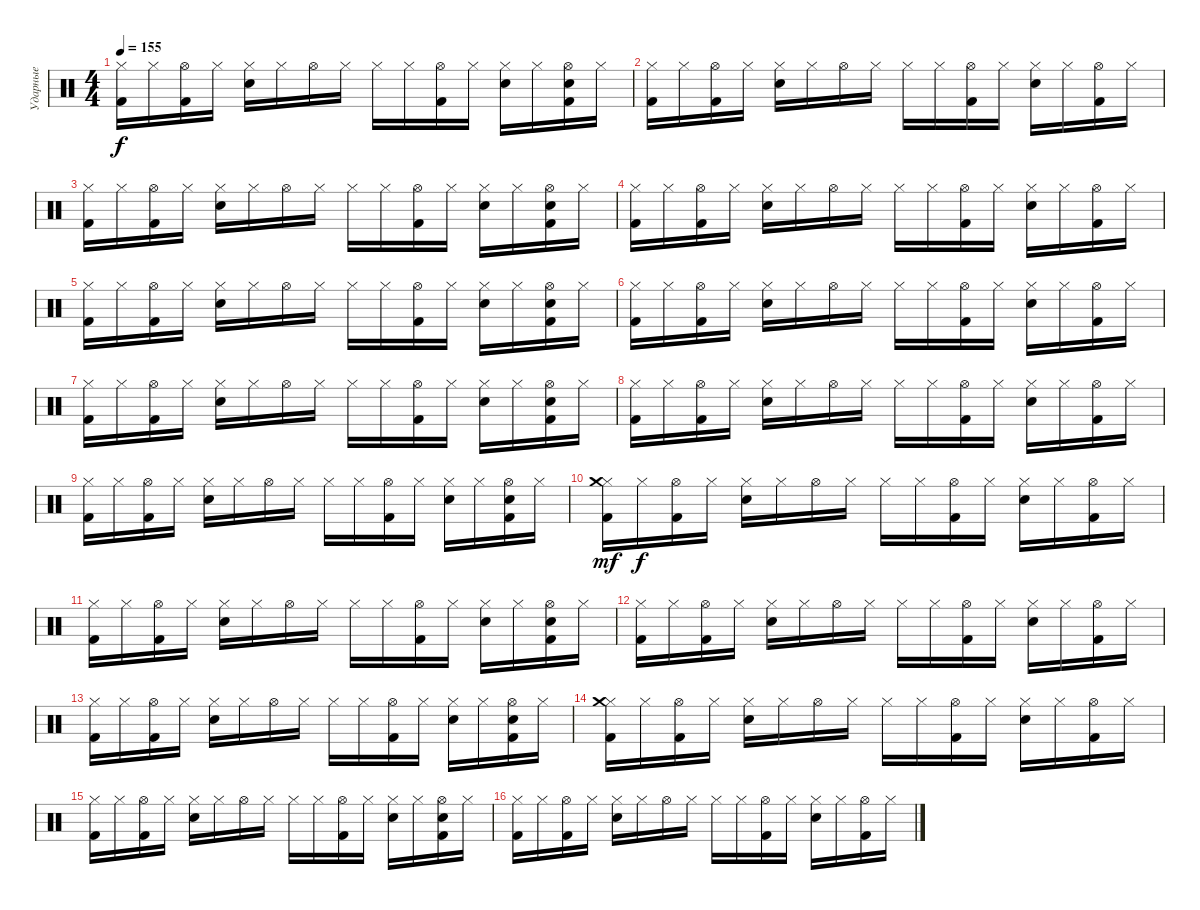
\track ("Ударные" "Ударные") {instrument percussion}
\staff {score}
\articulation defaults
\ts (4 4)
\tempo 155
\clef neutral
\ks c
("Hi-Hat (closed)" "Kick (hit) 2").16{dy f} "Hi-Hat (closed)".16 ("Hi-Hat (open)" "Kick (hit) 2").16 "Hi-Hat (closed)".16 ("Hi-Hat (closed)" "Electric Snare (hit)").16 "Hi-Hat (closed)".16 "Hi-Hat (open)".16 "Hi-Hat (closed)".16 "Hi-Hat (closed)".16 "Hi-Hat (closed)".16 ("Hi-Hat (open)" "Kick (hit) 2").16 "Hi-Hat (closed)".16 ("Hi-Hat (closed)" "Electric Snare (hit)").16 "Hi-Hat (closed)".16 ("Hi-Hat (open)" "Kick (hit) 2" "Electric Snare (hit)").16 "Hi-Hat (closed)".16 |
("Hi-Hat (closed)" "Kick (hit) 2").16 "Hi-Hat (closed)".16 ("Hi-Hat (open)" "Kick (hit) 2").16 "Hi-Hat (closed)".16 ("Hi-Hat (closed)" "Electric Snare (hit)").16 "Hi-Hat (closed)".16 "Hi-Hat (open)".16 "Hi-Hat (closed)".16 "Hi-Hat (closed)".16 "Hi-Hat (closed)".16 ("Hi-Hat (open)" "Kick (hit) 2").16 "Hi-Hat (closed)".16 ("Hi-Hat (closed)" "Electric Snare (hit)").16 "Hi-Hat (closed)".16 ("Hi-Hat (open)" "Kick (hit) 2").16 "Hi-Hat (closed)".16 |
("Hi-Hat (closed)" "Kick (hit) 2").16 "Hi-Hat (closed)".16 ("Hi-Hat (open)" "Kick (hit) 2").16 "Hi-Hat (closed)".16 ("Hi-Hat (closed)" "Electric Snare (hit)").16 "Hi-Hat (closed)".16 "Hi-Hat (open)".16 "Hi-Hat (closed)".16 "Hi-Hat (closed)".16 "Hi-Hat (closed)".16 ("Hi-Hat (open)" "Kick (hit) 2").16 "Hi-Hat (closed)".16 ("Hi-Hat (closed)" "Electric Snare (hit)").16 "Hi-Hat (closed)".16 ("Hi-Hat (open)" "Kick (hit) 2" "Electric Snare (hit)").16 "Hi-Hat (closed)".16 |
("Hi-Hat (closed)" "Kick (hit) 2").16 "Hi-Hat (closed)".16 ("Hi-Hat (open)" "Kick (hit) 2").16 "Hi-Hat (closed)".16 ("Hi-Hat (closed)" "Electric Snare (hit)").16 "Hi-Hat (closed)".16 "Hi-Hat (open)".16 "Hi-Hat (closed)".16 "Hi-Hat (closed)".16 "Hi-Hat (closed)".16 ("Hi-Hat (open)" "Kick (hit) 2").16 "Hi-Hat (closed)".16 ("Hi-Hat (closed)" "Electric Snare (hit)").16 "Hi-Hat (closed)".16 ("Hi-Hat (open)" "Kick (hit) 2").16 "Hi-Hat (closed)".16 |
("Hi-Hat (closed)" "Kick (hit) 2").16 "Hi-Hat (closed)".16 ("Hi-Hat (open)" "Kick (hit) 2").16 "Hi-Hat (closed)".16 ("Hi-Hat (closed)" "Electric Snare (hit)").16 "Hi-Hat (closed)".16 "Hi-Hat (open)".16 "Hi-Hat (closed)".16 "Hi-Hat (closed)".16 "Hi-Hat (closed)".16 ("Hi-Hat (open)" "Kick (hit) 2").16 "Hi-Hat (closed)".16 ("Hi-Hat (closed)" "Electric Snare (hit)").16 "Hi-Hat (closed)".16 ("Hi-Hat (open)" "Kick (hit) 2" "Electric Snare (hit)").16 "Hi-Hat (closed)".16 |
("Hi-Hat (closed)" "Kick (hit) 2").16 "Hi-Hat (closed)".16 ("Hi-Hat (open)" "Kick (hit) 2").16 "Hi-Hat (closed)".16 ("Hi-Hat (closed)" "Electric Snare (hit)").16 "Hi-Hat (closed)".16 "Hi-Hat (open)".16 "Hi-Hat (closed)".16 "Hi-Hat (closed)".16 "Hi-Hat (closed)".16 ("Hi-Hat (open)" "Kick (hit) 2").16 "Hi-Hat (closed)".16 ("Hi-Hat (closed)" "Electric Snare (hit)").16 "Hi-Hat (closed)".16 ("Hi-Hat (open)" "Kick (hit) 2").16 "Hi-Hat (closed)".16 |
("Hi-Hat (closed)" "Kick (hit) 2").16 "Hi-Hat (closed)".16 ("Hi-Hat (open)" "Kick (hit) 2").16 "Hi-Hat (closed)".16 ("Hi-Hat (closed)" "Electric Snare (hit)").16 "Hi-Hat (closed)".16 "Hi-Hat (open)".16 "Hi-Hat (closed)".16 "Hi-Hat (closed)".16 "Hi-Hat (closed)".16 ("Hi-Hat (open)" "Kick (hit) 2").16 "Hi-Hat (closed)".16 ("Hi-Hat (closed)" "Electric Snare (hit)").16 "Hi-Hat (closed)".16 ("Hi-Hat (open)" "Kick (hit) 2" "Electric Snare (hit)").16 "Hi-Hat (closed)".16 |
("Hi-Hat (closed)" "Kick (hit) 2").16 "Hi-Hat (closed)".16 ("Hi-Hat (open)" "Kick (hit) 2").16 "Hi-Hat (closed)".16 ("Hi-Hat (closed)" "Electric Snare (hit)").16 "Hi-Hat (closed)".16 "Hi-Hat (open)".16 "Hi-Hat (closed)".16 "Hi-Hat (closed)".16 "Hi-Hat (closed)".16 ("Hi-Hat (open)" "Kick (hit) 2").16 "Hi-Hat (closed)".16 ("Hi-Hat (closed)" "Electric Snare (hit)").16 "Hi-Hat (closed)".16 ("Hi-Hat (open)" "Kick (hit) 2").16 "Hi-Hat (closed)".16 |
("Hi-Hat (closed)" "Kick (hit) 2").16 "Hi-Hat (closed)".16 ("Hi-Hat (open)" "Kick (hit) 2").16 "Hi-Hat (closed)".16 ("Hi-Hat (closed)" "Electric Snare (hit)").16 "Hi-Hat (closed)".16 "Hi-Hat (open)".16 "Hi-Hat (closed)".16 "Hi-Hat (closed)".16 "Hi-Hat (closed)".16 ("Hi-Hat (open)" "Kick (hit) 2").16 "Hi-Hat (closed)".16 ("Hi-Hat (closed)" "Electric Snare (hit)").16 "Hi-Hat (closed)".16 ("Hi-Hat (open)" "Kick (hit) 2" "Electric Snare (hit)").16 "Hi-Hat (closed)".16 |
("Hi-Hat (closed)" "Kick (hit) 2" "Crash medium (hit)").16{dy mf} "Hi-Hat (closed)".16{dy f} ("Hi-Hat (open)" "Kick (hit) 2").16 "Hi-Hat (closed)".16 ("Hi-Hat (closed)" "Electric Snare (hit)").16 "Hi-Hat (closed)".16 "Hi-Hat (open)".16 "Hi-Hat (closed)".16 "Hi-Hat (closed)".16 "Hi-Hat (closed)".16 ("Hi-Hat (open)" "Kick (hit) 2").16 "Hi-Hat (closed)".16 ("Hi-Hat (closed)" "Electric Snare (hit)").16 "Hi-Hat (closed)".16 ("Hi-Hat (open)" "Kick (hit) 2").16 "Hi-Hat (closed)".16 |
("Hi-Hat (closed)" "Kick (hit) 2").16 "Hi-Hat (closed)".16 ("Hi-Hat (open)" "Kick (hit) 2").16 "Hi-Hat (closed)".16 ("Hi-Hat (closed)" "Electric Snare (hit)").16 "Hi-Hat (closed)".16 "Hi-Hat (open)".16 "Hi-Hat (closed)".16 "Hi-Hat (closed)".16 "Hi-Hat (closed)".16 ("Hi-Hat (open)" "Kick (hit) 2").16 "Hi-Hat (closed)".16 ("Hi-Hat (closed)" "Electric Snare (hit)").16 "Hi-Hat (closed)".16 ("Hi-Hat (open)" "Kick (hit) 2" "Electric Snare (hit)").16 "Hi-Hat (closed)".16 |
("Hi-Hat (closed)" "Kick (hit) 2").16 "Hi-Hat (closed)".16 ("Hi-Hat (open)" "Kick (hit) 2").16 "Hi-Hat (closed)".16 ("Hi-Hat (closed)" "Electric Snare (hit)").16 "Hi-Hat (closed)".16 "Hi-Hat (open)".16 "Hi-Hat (closed)".16 "Hi-Hat (closed)".16 "Hi-Hat (closed)".16 ("Hi-Hat (open)" "Kick (hit) 2").16 "Hi-Hat (closed)".16 ("Hi-Hat (closed)" "Electric Snare (hit)").16 "Hi-Hat (closed)".16 ("Hi-Hat (open)" "Kick (hit) 2").16 "Hi-Hat (closed)".16 |
("Hi-Hat (closed)" "Kick (hit) 2").16 "Hi-Hat (closed)".16 ("Hi-Hat (open)" "Kick (hit) 2").16 "Hi-Hat (closed)".16 ("Hi-Hat (closed)" "Electric Snare (hit)").16 "Hi-Hat (closed)".16 "Hi-Hat (open)".16 "Hi-Hat (closed)".16 "Hi-Hat (closed)".16 "Hi-Hat (closed)".16 ("Hi-Hat (open)" "Kick (hit) 2").16 "Hi-Hat (closed)".16 ("Hi-Hat (closed)" "Electric Snare (hit)").16 "Hi-Hat (closed)".16 ("Hi-Hat (open)" "Kick (hit) 2" "Electric Snare (hit)").16 "Hi-Hat (closed)".16 |
("Hi-Hat (closed)" "Kick (hit) 2" "Crash medium (hit)").16 "Hi-Hat (closed)".16 ("Hi-Hat (open)" "Kick (hit) 2").16 "Hi-Hat (closed)".16 ("Hi-Hat (closed)" "Electric Snare (hit)").16 "Hi-Hat (closed)".16 "Hi-Hat (open)".16 "Hi-Hat (closed)".16 "Hi-Hat (closed)".16 "Hi-Hat (closed)".16 ("Hi-Hat (open)" "Kick (hit) 2").16 "Hi-Hat (closed)".16 ("Hi-Hat (closed)" "Electric Snare (hit)").16 "Hi-Hat (closed)".16 ("Hi-Hat (open)" "Kick (hit) 2").16 "Hi-Hat (closed)".16 |
("Hi-Hat (closed)" "Kick (hit) 2").16 "Hi-Hat (closed)".16 ("Hi-Hat (open)" "Kick (hit) 2").16 "Hi-Hat (closed)".16 ("Hi-Hat (closed)" "Electric Snare (hit)").16 "Hi-Hat (closed)".16 "Hi-Hat (open)".16 "Hi-Hat (closed)".16 "Hi-Hat (closed)".16 "Hi-Hat (closed)".16 ("Hi-Hat (open)" "Kick (hit) 2").16 "Hi-Hat (closed)".16 ("Hi-Hat (closed)" "Electric Snare (hit)").16 "Hi-Hat (closed)".16 ("Hi-Hat (open)" "Kick (hit) 2" "Electric Snare (hit)").16 "Hi-Hat (closed)".16 |
("Hi-Hat (closed)" "Kick (hit) 2").16 "Hi-Hat (closed)".16 ("Hi-Hat (open)" "Kick (hit) 2").16 "Hi-Hat (closed)".16 ("Hi-Hat (closed)" "Electric Snare (hit)").16 "Hi-Hat (closed)".16 "Hi-Hat (open)".16 "Hi-Hat (closed)".16 "Hi-Hat (closed)".16 "Hi-Hat (closed)".16 ("Hi-Hat (open)" "Kick (hit) 2").16 "Hi-Hat (closed)".16 ("Hi-Hat (closed)" "Electric Snare (hit)").16 "Hi-Hat (closed)".16 ("Hi-Hat (open)" "Kick (hit) 2").16 "Hi-Hat (closed)".16
